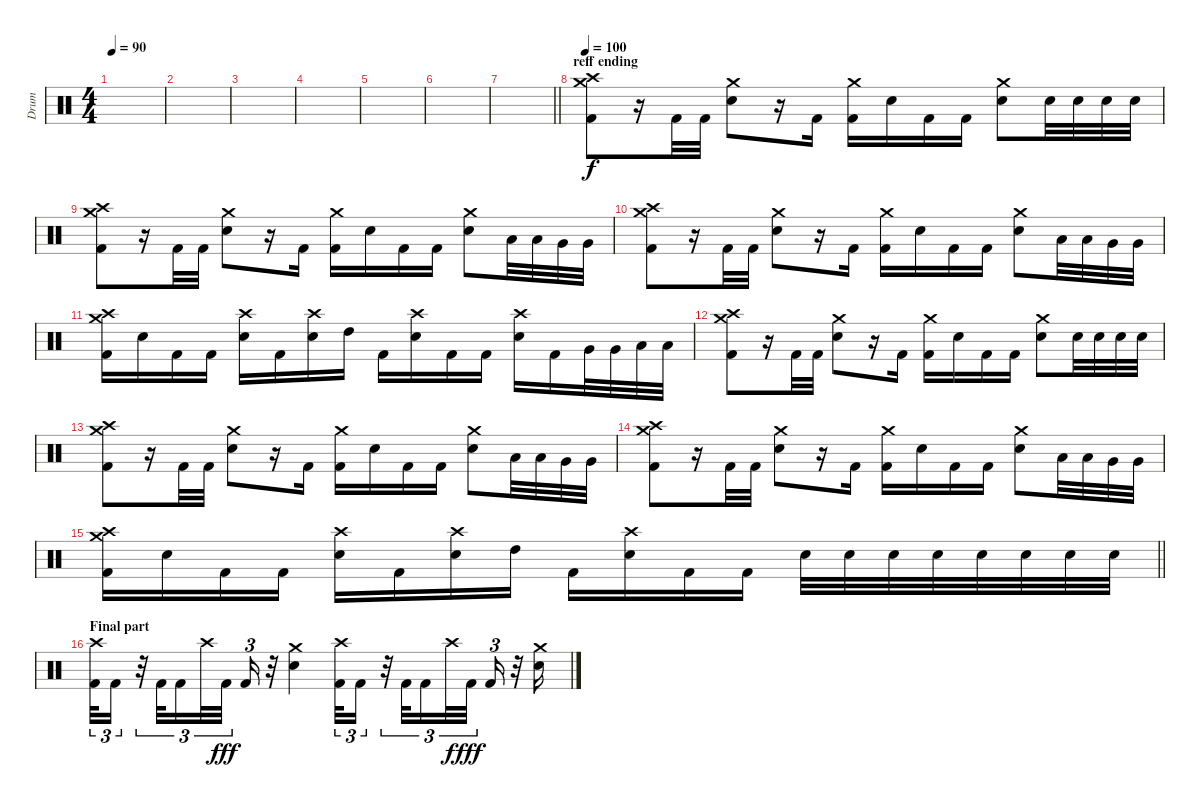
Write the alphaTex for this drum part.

\track ("Drum" "Drum") {instrument percussion}
\staff {score}
\articulation defaults
\ts (4 4)
\tempo 90
\clef neutral
\ks c
|
|
|
|
|
|
\barLineRight lightlight
|
\section ("" "reff ending")
\tempo 100
("Crash high (hit)" "Crash medium (hit)" "Kick (hit) 2").8 r.16 "Kick (hit) 2".32 "Kick (hit) 2".32 ("Crash medium (hit)" "Electric Snare (hit)").8 r.16 "Kick (hit) 2".16 ("Crash medium (hit)" "Kick (hit) 2").16 "Electric Snare (hit)".16 "Kick (hit) 2".16 "Kick (hit) 2".16 ("Crash medium (hit)" "Electric Snare (hit)").8 "Electric Snare (hit)".32 "Electric Snare (hit)".32 "Electric Snare (hit)".32 "Electric Snare (hit)".32 |
("Crash high (hit)" "Crash medium (hit)" "Kick (hit) 2").8 r.16 "Kick (hit) 2".32 "Kick (hit) 2".32 ("Crash medium (hit)" "Electric Snare (hit)").8 r.16 "Kick (hit) 2".16 ("Crash medium (hit)" "Kick (hit) 2").16 "Electric Snare (hit)".16 "Kick (hit) 2".16 "Kick (hit) 2".16 ("Crash medium (hit)" "Electric Snare (hit)").8 "Low Tom (hit)".32 "Low Tom (hit)".32 "Very Low Tom (hit)".32 "Very Low Tom (hit)".32 |
("Crash high (hit)" "Crash medium (hit)" "Kick (hit) 2").8 r.16 "Kick (hit) 2".32 "Kick (hit) 2".32 ("Crash medium (hit)" "Electric Snare (hit)").8 r.16 "Kick (hit) 2".16 ("Crash medium (hit)" "Kick (hit) 2").16 "Electric Snare (hit)".16 "Kick (hit) 2".16 "Kick (hit) 2".16 ("Crash medium (hit)" "Electric Snare (hit)").8 "Low Tom (hit)".32 "Low Tom (hit)".32 "Very Low Tom (hit)".32 "Very Low Tom (hit)".32 |
("Crash medium (hit)" "Crash high (hit)" "Kick (hit) 2").16 "Electric Snare (hit)".16 "Kick (hit) 2".16 "Kick (hit) 2".16 ("Crash high (hit)" "Electric Snare (hit)").16 "Kick (hit) 2".16 ("Crash high (hit)" "Electric Snare (hit)").16 "High Tom (hit)".16 "Kick (hit) 2".16 ("Crash high (hit)" "Electric Snare (hit)").16 "Kick (hit) 2".16 "Kick (hit) 2".16 ("Crash high (hit)" "Electric Snare (hit)").16 "Kick (hit) 2".16 "Very Low Tom (hit)".32 "Very Low Tom (hit)".32 "Low Floor Tom (hit)".32 "Low Floor Tom (hit)".32 |
("Crash high (hit)" "Crash medium (hit)" "Kick (hit) 2").8 r.16 "Kick (hit) 2".32 "Kick (hit) 2".32 ("Crash medium (hit)" "Electric Snare (hit)").8 r.16 "Kick (hit) 2".16 ("Crash medium (hit)" "Kick (hit) 2").16 "Electric Snare (hit)".16 "Kick (hit) 2".16 "Kick (hit) 2".16 ("Crash medium (hit)" "Electric Snare (hit)").8 "Electric Snare (hit)".32 "Electric Snare (hit)".32 "Electric Snare (hit)".32 "Electric Snare (hit)".32 |
("Crash high (hit)" "Crash medium (hit)" "Kick (hit) 2").8 r.16 "Kick (hit) 2".32 "Kick (hit) 2".32 ("Crash medium (hit)" "Electric Snare (hit)").8 r.16 "Kick (hit) 2".16 ("Crash medium (hit)" "Kick (hit) 2").16 "Electric Snare (hit)".16 "Kick (hit) 2".16 "Kick (hit) 2".16 ("Crash medium (hit)" "Electric Snare (hit)").8 "Low Tom (hit)".32 "Low Tom (hit)".32 "Very Low Tom (hit)".32 "Very Low Tom (hit)".32 |
("Crash high (hit)" "Crash medium (hit)" "Kick (hit) 2").8 r.16 "Kick (hit) 2".32 "Kick (hit) 2".32 ("Crash medium (hit)" "Electric Snare (hit)").8 r.16 "Kick (hit) 2".16 ("Crash medium (hit)" "Kick (hit) 2").16 "Electric Snare (hit)".16 "Kick (hit) 2".16 "Kick (hit) 2".16 ("Crash medium (hit)" "Electric Snare (hit)").8 "Low Tom (hit)".32 "Low Tom (hit)".32 "Very Low Tom (hit)".32 "Very Low Tom (hit)".32 |
\barLineRight lightlight
("Crash medium (hit)" "Crash high (hit)" "Kick (hit) 2").16 "Electric Snare (hit)".16 "Kick (hit) 2".16 "Kick (hit) 2".16 ("Crash high (hit)" "Electric Snare (hit)").16 "Kick (hit) 2".16 ("Crash high (hit)" "Electric Snare (hit)").16 "High Tom (hit)".16 "Kick (hit) 2".16 ("Crash high (hit)" "Electric Snare (hit)").16 "Kick (hit) 2".16 "Kick (hit) 2".16 "Electric Snare (hit)".32 "Electric Snare (hit)".32 "Electric Snare (hit)".32 "Electric Snare (hit)".32 "Electric Snare (hit)".32 "Electric Snare (hit)".32 "Electric Snare (hit)".32 "Electric Snare (hit)".32 |
\section ("" "Final part")
("Crash high (hit)" "Kick (hit) 2").32{tu (3 2)} "Kick (hit) 2".16{tu (3 2)} r.32{tu (3 2)} "Kick (hit) 2".32{tu (3 2)} "Kick (hit) 2".16{tu (3 2)} "Crash high (hit)".32{tu (3 2) dy f} "Kick (hit) 2".32{tu (3 2) dy fff beam splitsecondary} "Kick (hit) 2".16{tu (3 2)} r.32 ("Crash medium (hit)" "Electric Snare (hit)").4 ("Crash high (hit)" "Kick (hit) 2").32{tu (3 2)} "Kick (hit) 2".16{tu (3 2)} r.32{tu (3 2)} "Kick (hit) 2".32{tu (3 2)} "Kick (hit) 2".16{tu (3 2)} "Crash high (hit)".32{tu (3 2) dy f} "Kick (hit) 2".32{tu (3 2) dy fff beam splitsecondary} "Kick (hit) 2".16{tu (3 2)} r.32 ("Crash medium (hit)" "Electric Snare (hit)").16
